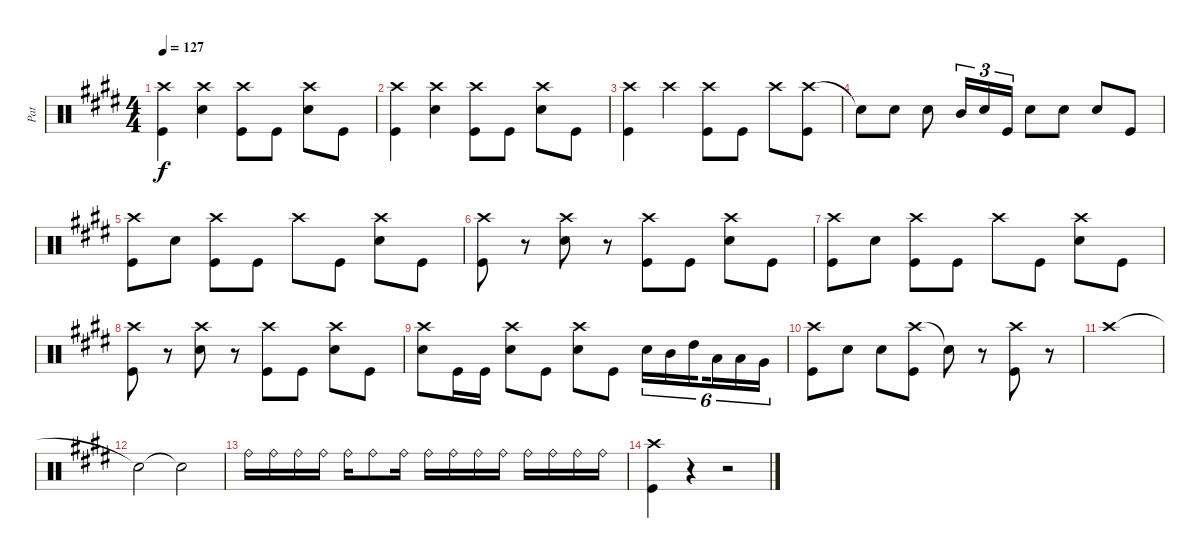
\track ("Pat" "Pat") {instrument percussion}
\staff {score}
\articulation defaults
\ts (4 4)
\tempo 127
\clef neutral
\ks e
("Crash high (hit)" "Kick (hit)").4{dy f} ("Crash high (hit)" "Snare (hit) 2").4 ("Crash high (hit)" "Kick (hit)").8 "Kick (hit)".8 ("Crash high (hit)" "Snare (hit) 2").8 "Kick (hit)".8 |
("Crash high (hit)" "Kick (hit)").4 ("Crash high (hit)" "Snare (hit) 2").4 ("Crash high (hit)" "Kick (hit)").8 "Kick (hit)".8 ("Crash high (hit)" "Snare (hit) 2").8 "Kick (hit)".8 |
("Crash high (hit)" "Kick (hit)").4 "Crash high (hit)".4 ("Crash high (hit)" "Kick (hit)").8 "Kick (hit)".8 "Crash high (hit)".8 ("Crash high (hit)" "Kick (hit)").8 |
"Snare (hit)"{t}.8 "Snare (hit) 2".8 "Snare (hit) 2".8 "Mid Tom (hit)".16{tu (3 2)} "Snare (hit) 2".16{tu (3 2)} "Kick (hit)".16{tu (3 2)} "Snare (hit) 2".8 "Snare (hit) 2".8 "Snare (hit) 2".8 "Kick (hit)".8 |
("Crash high (hit)" "Kick (hit)").8 "Snare (hit) 2".8 ("Crash high (hit)" "Kick (hit)").8 "Kick (hit)".8 "Crash high (hit)".8 "Kick (hit)".8 ("Crash high (hit)" "Snare (hit) 2").8 "Kick (hit)".8 |
("Crash high (hit)" "Kick (hit)").8 r.8 ("Crash high (hit)" "Snare (hit) 2").8 r.8 ("Kick (hit)" "Crash high (hit)").8 "Kick (hit)".8 ("Crash high (hit)" "Snare (hit) 2").8 "Kick (hit)".8 |
("Crash high (hit)" "Kick (hit)").8 "Snare (hit) 2".8 ("Crash high (hit)" "Kick (hit)").8 "Kick (hit)".8 "Crash high (hit)".8 "Kick (hit)".8 ("Crash high (hit)" "Snare (hit) 2").8 "Kick (hit)".8 |
("Crash high (hit)" "Kick (hit)").8 r.8 ("Crash high (hit)" "Snare (hit) 2").8 r.8 ("Kick (hit)" "Crash high (hit)").8 "Kick (hit)".8 ("Crash high (hit)" "Snare (hit) 2").8 "Kick (hit)".8 |
("Crash high (hit)" "Snare (hit) 2").8 "Kick (hit)".16 "Kick (hit)".16 ("Crash high (hit)" "Snare (hit) 2").8 "Kick (hit)".8 ("Crash high (hit)" "Snare (hit) 2").8 "Kick (hit)".8 "Snare (hit) 2".16{tu (6 4)} "Mid Tom (hit)".16{tu (6 4)} "High Tom (hit)".16{tu (6 4) beam splitsecondary} "Low Tom (hit)".16{tu (6 4)} "Low Tom (hit)".16{tu (6 4)} "Very Low Tom (hit)".16{tu (6 4)} |
("Crash high (hit)" "Kick (hit)").8 "Snare (hit) 2".8 "Snare (hit) 2".8 ("Crash high (hit)" "Kick (hit)").8 "Snare (hit)"{t}.8 r.8 ("Crash high (hit)" "Kick (hit)").8 r.8 |
"Crash high (hit)".1 |
"Snare (hit)"{t}.2 "Snare (hit)"{t}.2 |
"Ride (bell)".16 "Ride (bell)".16 "Ride (bell)".16 "Ride (bell)".16 "Ride (bell)".16 "Ride (bell)".8 "Ride (bell)".16 "Ride (bell)".16 "Ride (bell)".16 "Ride (bell)".16 "Ride (bell)".16 "Ride (bell)".16 "Ride (bell)".16 "Ride (bell)".16 "Ride (bell)".16 |
("Crash high (hit)" "Kick (hit)").4 r.4 r.2
